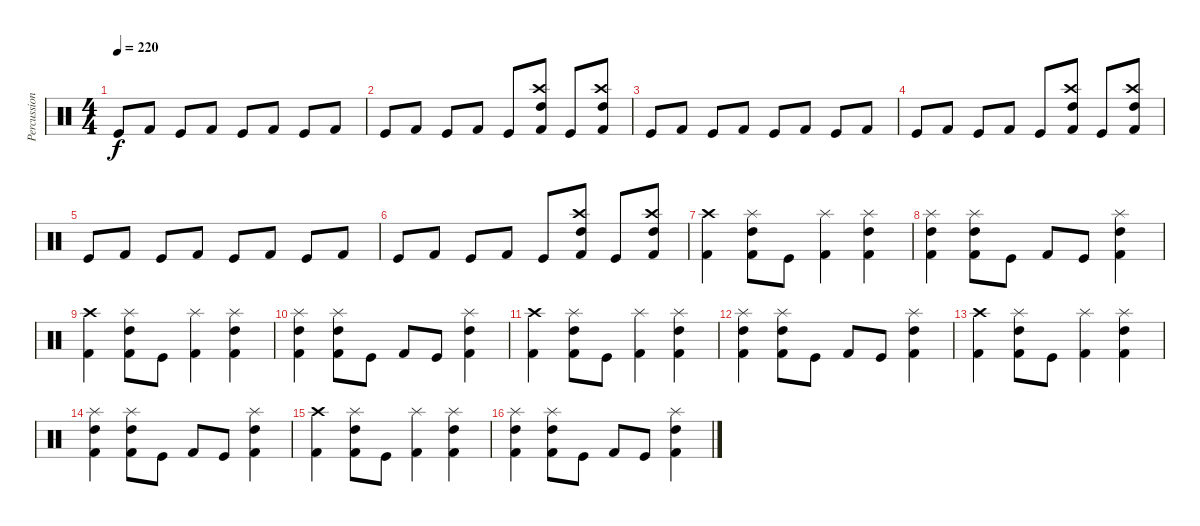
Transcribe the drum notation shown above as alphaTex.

\track ("Percussions" "Percussion") {instrument percussion}
\staff {score}
\articulation defaults
\ts (4 4)
\tempo 220
\clef neutral
\ks c "Kick (hit)".8{dy f} "Kick (hit) 2".8 "Kick (hit)".8 "Kick (hit) 2".8 "Kick (hit)".8 "Kick (hit) 2".8 "Kick (hit)".8 "Kick (hit) 2".8
|
"Kick (hit)".8 "Kick (hit) 2".8 "Kick (hit)".8 "Kick (hit) 2".8 "Kick (hit)".8 ("Kick (hit) 2" "Crash high (hit)" "High Tom (hit)").8 "Kick (hit)".8 ("Kick (hit) 2" "Crash high (hit)" "High Tom (hit)").8 |
"Kick (hit)".8 "Kick (hit) 2".8 "Kick (hit)".8 "Kick (hit) 2".8 "Kick (hit)".8 "Kick (hit) 2".8 "Kick (hit)".8 "Kick (hit) 2".8 |
"Kick (hit)".8 "Kick (hit) 2".8 "Kick (hit)".8 "Kick (hit) 2".8 "Kick (hit)".8 ("Kick (hit) 2" "Crash high (hit)" "High Tom (hit)").8 "Kick (hit)".8 ("Kick (hit) 2" "Crash high (hit)" "High Tom (hit)").8 |
"Kick (hit)".8 "Kick (hit) 2".8 "Kick (hit)".8 "Kick (hit) 2".8 "Kick (hit)".8 "Kick (hit) 2".8 "Kick (hit)".8 "Kick (hit) 2".8 |
"Kick (hit)".8 "Kick (hit) 2".8 "Kick (hit)".8 "Kick (hit) 2".8 "Kick (hit)".8 ("Kick (hit) 2" "Crash high (hit)" "High Tom (hit)").8 "Kick (hit)".8 ("Kick (hit) 2" "Crash high (hit)" "High Tom (hit)").8 |
("Kick (hit) 2" "Crash high (hit)").4 ("Kick (hit) 2" "Splash (hit)" "High Tom (hit)").8 "Kick (hit)".8 ("Kick (hit) 2" "Splash (hit)").4 ("Kick (hit) 2" "Splash (hit)" "High Tom (hit)").4 |
("Kick (hit) 2" "Splash (hit)" "High Tom (hit)").4 ("Kick (hit) 2" "Splash (hit)" "High Tom (hit)").8 "Kick (hit)".8 "Kick (hit) 2".8 "Kick (hit)".8 ("Kick (hit) 2" "Splash (hit)" "High Tom (hit)").4 |
("Kick (hit) 2" "Crash high (hit)").4 ("Kick (hit) 2" "Splash (hit)" "High Tom (hit)").8 "Kick (hit)".8 ("Kick (hit) 2" "Splash (hit)").4 ("Kick (hit) 2" "Splash (hit)" "High Tom (hit)").4 |
("Kick (hit) 2" "Splash (hit)" "High Tom (hit)").4 ("Kick (hit) 2" "Splash (hit)" "High Tom (hit)").8 "Kick (hit)".8 "Kick (hit) 2".8 "Kick (hit)".8 ("Kick (hit) 2" "Splash (hit)" "High Tom (hit)").4 |
("Kick (hit) 2" "Crash high (hit)").4 ("Kick (hit) 2" "Splash (hit)" "High Tom (hit)").8 "Kick (hit)".8 ("Kick (hit) 2" "Splash (hit)").4 ("Kick (hit) 2" "Splash (hit)" "High Tom (hit)").4 |
("Kick (hit) 2" "Splash (hit)" "High Tom (hit)").4 ("Kick (hit) 2" "Splash (hit)" "High Tom (hit)").8 "Kick (hit)".8 "Kick (hit) 2".8 "Kick (hit)".8 ("Kick (hit) 2" "Splash (hit)" "High Tom (hit)").4 |
("Kick (hit) 2" "Crash high (hit)").4 ("Kick (hit) 2" "Splash (hit)" "High Tom (hit)").8 "Kick (hit)".8 ("Kick (hit) 2" "Splash (hit)").4 ("Kick (hit) 2" "Splash (hit)" "High Tom (hit)").4 |
("Kick (hit) 2" "Splash (hit)" "High Tom (hit)").4 ("Kick (hit) 2" "Splash (hit)" "High Tom (hit)").8 "Kick (hit)".8 "Kick (hit) 2".8 "Kick (hit)".8 ("Kick (hit) 2" "Splash (hit)" "High Tom (hit)").4 |
("Kick (hit) 2" "Crash high (hit)").4 ("Kick (hit) 2" "Splash (hit)" "High Tom (hit)").8 "Kick (hit)".8 ("Kick (hit) 2" "Splash (hit)").4 ("Kick (hit) 2" "Splash (hit)" "High Tom (hit)").4 |
("Kick (hit) 2" "Splash (hit)" "High Tom (hit)").4 ("Kick (hit) 2" "Splash (hit)" "High Tom (hit)").8 "Kick (hit)".8 "Kick (hit) 2".8 "Kick (hit)".8 ("Kick (hit) 2" "Splash (hit)" "High Tom (hit)").4
